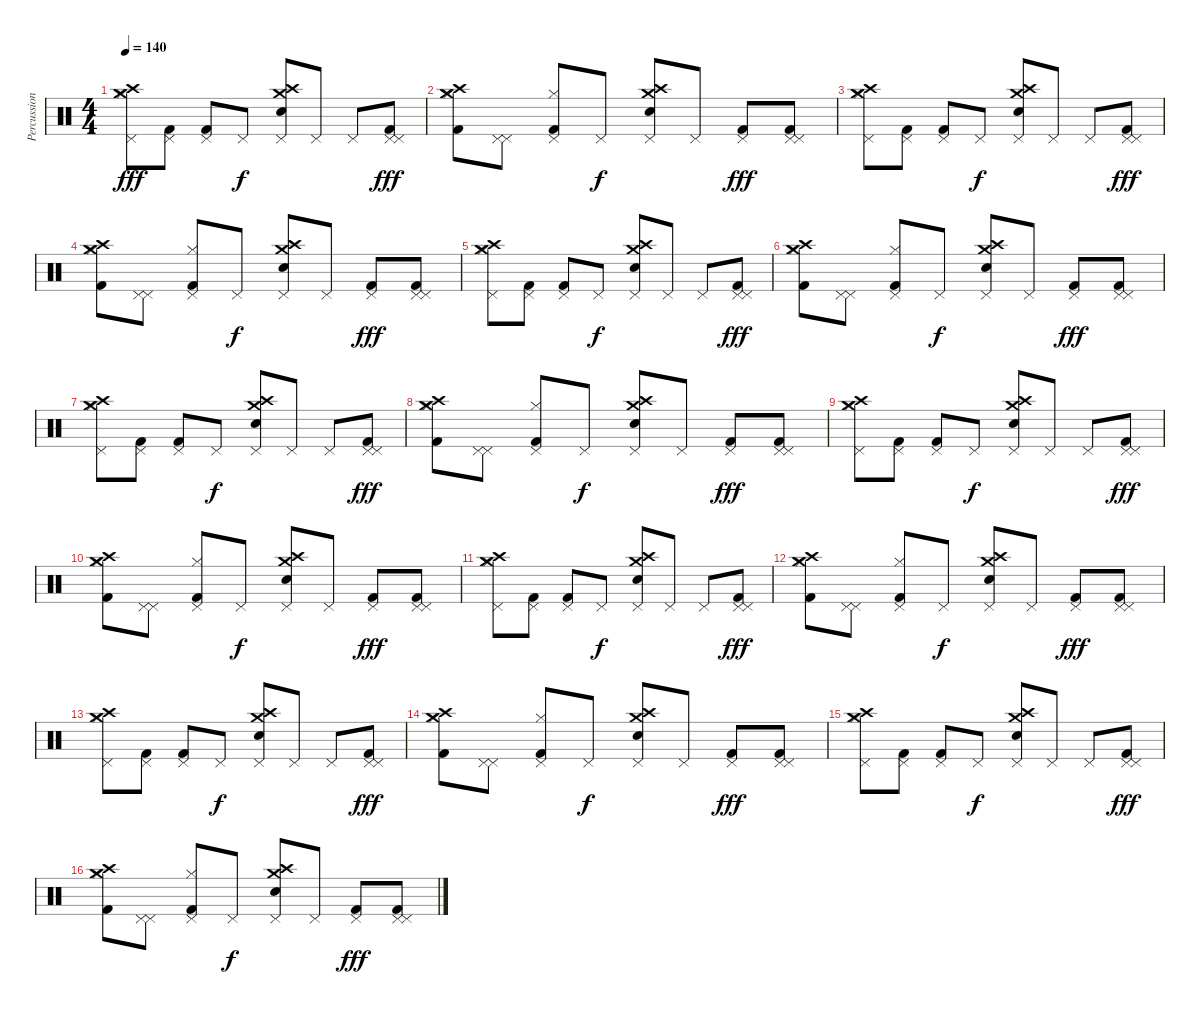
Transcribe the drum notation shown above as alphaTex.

\track ("Percussion" "Percussion") {instrument percussion}
\staff {score}
\articulation defaults
\ts (4 4)
\tempo 140
\clef neutral
\ks c
("Pedal Hi-Hat (hit)" "Crash high (hit)" "Hi-Hat (closed)" "Crash medium (hit)").8{dy fff} ("Pedal Hi-Hat (hit)" "Kick (hit) 2").8 ("Pedal Hi-Hat (hit)" "Kick (hit) 2").8 "Pedal Hi-Hat (hit)".8{dy f} ("Pedal Hi-Hat (hit)" "Crash high (hit)" "Crash medium (hit)" "Electric Snare (hit)").8 "Pedal Hi-Hat (hit)".8 "Pedal Hi-Hat (hit)".8 ("Pedal Hi-Hat (hit)" "Pedal Hi-Hat (hit)" "Kick (hit) 2").8{dy fff} |
("Hi-Hat (closed)" "Crash medium (hit)" "Crash high (hit)" "Kick (hit) 2").8 ("Pedal Hi-Hat (hit)" "Pedal Hi-Hat (hit)").8 ("Pedal Hi-Hat (hit)" "Hi-Hat (closed)" "Kick (hit) 2").8 "Pedal Hi-Hat (hit)".8{dy f} ("Pedal Hi-Hat (hit)" "Crash medium (hit)" "Crash high (hit)" "Electric Snare (hit)").8 "Pedal Hi-Hat (hit)".8 ("Pedal Hi-Hat (hit)" "Kick (hit) 2").8{dy fff} ("Pedal Hi-Hat (hit)" "Pedal Hi-Hat (hit)" "Kick (hit) 2").8 |
("Pedal Hi-Hat (hit)" "Crash high (hit)" "Hi-Hat (closed)" "Crash medium (hit)").8 ("Pedal Hi-Hat (hit)" "Kick (hit) 2").8 ("Pedal Hi-Hat (hit)" "Kick (hit) 2").8 "Pedal Hi-Hat (hit)".8{dy f} ("Pedal Hi-Hat (hit)" "Crash high (hit)" "Crash medium (hit)" "Electric Snare (hit)").8 "Pedal Hi-Hat (hit)".8 "Pedal Hi-Hat (hit)".8 ("Pedal Hi-Hat (hit)" "Pedal Hi-Hat (hit)" "Kick (hit) 2").8{dy fff} |
("Hi-Hat (closed)" "Crash medium (hit)" "Crash high (hit)" "Kick (hit) 2").8 ("Pedal Hi-Hat (hit)" "Pedal Hi-Hat (hit)").8 ("Pedal Hi-Hat (hit)" "Hi-Hat (closed)" "Kick (hit) 2").8 "Pedal Hi-Hat (hit)".8{dy f} ("Pedal Hi-Hat (hit)" "Crash medium (hit)" "Crash high (hit)" "Electric Snare (hit)").8 "Pedal Hi-Hat (hit)".8 ("Pedal Hi-Hat (hit)" "Kick (hit) 2").8{dy fff} ("Pedal Hi-Hat (hit)" "Pedal Hi-Hat (hit)" "Kick (hit) 2").8 |
("Pedal Hi-Hat (hit)" "Crash high (hit)" "Hi-Hat (closed)" "Crash medium (hit)").8 ("Pedal Hi-Hat (hit)" "Kick (hit) 2").8 ("Pedal Hi-Hat (hit)" "Kick (hit) 2").8 "Pedal Hi-Hat (hit)".8{dy f} ("Pedal Hi-Hat (hit)" "Crash high (hit)" "Crash medium (hit)" "Electric Snare (hit)").8 "Pedal Hi-Hat (hit)".8 "Pedal Hi-Hat (hit)".8 ("Pedal Hi-Hat (hit)" "Pedal Hi-Hat (hit)" "Kick (hit) 2").8{dy fff} |
("Hi-Hat (closed)" "Crash medium (hit)" "Crash high (hit)" "Kick (hit) 2").8 ("Pedal Hi-Hat (hit)" "Pedal Hi-Hat (hit)").8 ("Pedal Hi-Hat (hit)" "Hi-Hat (closed)" "Kick (hit) 2").8 "Pedal Hi-Hat (hit)".8{dy f} ("Pedal Hi-Hat (hit)" "Crash medium (hit)" "Crash high (hit)" "Electric Snare (hit)").8 "Pedal Hi-Hat (hit)".8 ("Pedal Hi-Hat (hit)" "Kick (hit) 2").8{dy fff} ("Pedal Hi-Hat (hit)" "Pedal Hi-Hat (hit)" "Kick (hit) 2").8 |
("Pedal Hi-Hat (hit)" "Crash high (hit)" "Hi-Hat (closed)" "Crash medium (hit)").8 ("Pedal Hi-Hat (hit)" "Kick (hit) 2").8 ("Pedal Hi-Hat (hit)" "Kick (hit) 2").8 "Pedal Hi-Hat (hit)".8{dy f} ("Pedal Hi-Hat (hit)" "Crash high (hit)" "Crash medium (hit)" "Electric Snare (hit)").8 "Pedal Hi-Hat (hit)".8 "Pedal Hi-Hat (hit)".8 ("Pedal Hi-Hat (hit)" "Pedal Hi-Hat (hit)" "Kick (hit) 2").8{dy fff} |
("Hi-Hat (closed)" "Crash medium (hit)" "Crash high (hit)" "Kick (hit) 2").8 ("Pedal Hi-Hat (hit)" "Pedal Hi-Hat (hit)").8 ("Pedal Hi-Hat (hit)" "Hi-Hat (closed)" "Kick (hit) 2").8 "Pedal Hi-Hat (hit)".8{dy f} ("Pedal Hi-Hat (hit)" "Crash medium (hit)" "Crash high (hit)" "Electric Snare (hit)").8 "Pedal Hi-Hat (hit)".8 ("Pedal Hi-Hat (hit)" "Kick (hit) 2").8{dy fff} ("Pedal Hi-Hat (hit)" "Pedal Hi-Hat (hit)" "Kick (hit) 2").8 |
("Pedal Hi-Hat (hit)" "Crash high (hit)" "Hi-Hat (closed)" "Crash medium (hit)").8 ("Pedal Hi-Hat (hit)" "Kick (hit) 2").8 ("Pedal Hi-Hat (hit)" "Kick (hit) 2").8 "Pedal Hi-Hat (hit)".8{dy f} ("Pedal Hi-Hat (hit)" "Crash high (hit)" "Crash medium (hit)" "Electric Snare (hit)").8 "Pedal Hi-Hat (hit)".8 "Pedal Hi-Hat (hit)".8 ("Pedal Hi-Hat (hit)" "Pedal Hi-Hat (hit)" "Kick (hit) 2").8{dy fff} |
("Hi-Hat (closed)" "Crash medium (hit)" "Crash high (hit)" "Kick (hit) 2").8 ("Pedal Hi-Hat (hit)" "Pedal Hi-Hat (hit)").8 ("Pedal Hi-Hat (hit)" "Hi-Hat (closed)" "Kick (hit) 2").8 "Pedal Hi-Hat (hit)".8{dy f} ("Pedal Hi-Hat (hit)" "Crash medium (hit)" "Crash high (hit)" "Electric Snare (hit)").8 "Pedal Hi-Hat (hit)".8 ("Pedal Hi-Hat (hit)" "Kick (hit) 2").8{dy fff} ("Pedal Hi-Hat (hit)" "Pedal Hi-Hat (hit)" "Kick (hit) 2").8 |
("Pedal Hi-Hat (hit)" "Crash high (hit)" "Hi-Hat (closed)" "Crash medium (hit)").8 ("Pedal Hi-Hat (hit)" "Kick (hit) 2").8 ("Pedal Hi-Hat (hit)" "Kick (hit) 2").8 "Pedal Hi-Hat (hit)".8{dy f} ("Pedal Hi-Hat (hit)" "Crash high (hit)" "Crash medium (hit)" "Electric Snare (hit)").8 "Pedal Hi-Hat (hit)".8 "Pedal Hi-Hat (hit)".8 ("Pedal Hi-Hat (hit)" "Pedal Hi-Hat (hit)" "Kick (hit) 2").8{dy fff} |
("Hi-Hat (closed)" "Crash medium (hit)" "Crash high (hit)" "Kick (hit) 2").8 ("Pedal Hi-Hat (hit)" "Pedal Hi-Hat (hit)").8 ("Pedal Hi-Hat (hit)" "Hi-Hat (closed)" "Kick (hit) 2").8 "Pedal Hi-Hat (hit)".8{dy f} ("Pedal Hi-Hat (hit)" "Crash medium (hit)" "Crash high (hit)" "Electric Snare (hit)").8 "Pedal Hi-Hat (hit)".8 ("Pedal Hi-Hat (hit)" "Kick (hit) 2").8{dy fff} ("Pedal Hi-Hat (hit)" "Pedal Hi-Hat (hit)" "Kick (hit) 2").8 |
("Pedal Hi-Hat (hit)" "Crash high (hit)" "Hi-Hat (closed)" "Crash medium (hit)").8 ("Pedal Hi-Hat (hit)" "Kick (hit) 2").8 ("Pedal Hi-Hat (hit)" "Kick (hit) 2").8 "Pedal Hi-Hat (hit)".8{dy f} ("Pedal Hi-Hat (hit)" "Crash high (hit)" "Crash medium (hit)" "Electric Snare (hit)").8 "Pedal Hi-Hat (hit)".8 "Pedal Hi-Hat (hit)".8 ("Pedal Hi-Hat (hit)" "Pedal Hi-Hat (hit)" "Kick (hit) 2").8{dy fff} |
("Hi-Hat (closed)" "Crash medium (hit)" "Crash high (hit)" "Kick (hit) 2").8 ("Pedal Hi-Hat (hit)" "Pedal Hi-Hat (hit)").8 ("Pedal Hi-Hat (hit)" "Hi-Hat (closed)" "Kick (hit) 2").8 "Pedal Hi-Hat (hit)".8{dy f} ("Pedal Hi-Hat (hit)" "Crash medium (hit)" "Crash high (hit)" "Electric Snare (hit)").8 "Pedal Hi-Hat (hit)".8 ("Pedal Hi-Hat (hit)" "Kick (hit) 2").8{dy fff} ("Pedal Hi-Hat (hit)" "Pedal Hi-Hat (hit)" "Kick (hit) 2").8 |
("Pedal Hi-Hat (hit)" "Crash high (hit)" "Hi-Hat (closed)" "Crash medium (hit)").8 ("Pedal Hi-Hat (hit)" "Kick (hit) 2").8 ("Pedal Hi-Hat (hit)" "Kick (hit) 2").8 "Pedal Hi-Hat (hit)".8{dy f} ("Pedal Hi-Hat (hit)" "Crash high (hit)" "Crash medium (hit)" "Electric Snare (hit)").8 "Pedal Hi-Hat (hit)".8 "Pedal Hi-Hat (hit)".8 ("Pedal Hi-Hat (hit)" "Pedal Hi-Hat (hit)" "Kick (hit) 2").8{dy fff} |
("Hi-Hat (closed)" "Crash medium (hit)" "Crash high (hit)" "Kick (hit) 2").8 ("Pedal Hi-Hat (hit)" "Pedal Hi-Hat (hit)").8 ("Pedal Hi-Hat (hit)" "Hi-Hat (closed)" "Kick (hit) 2").8 "Pedal Hi-Hat (hit)".8{dy f} ("Pedal Hi-Hat (hit)" "Crash medium (hit)" "Crash high (hit)" "Electric Snare (hit)").8 "Pedal Hi-Hat (hit)".8 ("Pedal Hi-Hat (hit)" "Kick (hit) 2").8{dy fff} ("Pedal Hi-Hat (hit)" "Pedal Hi-Hat (hit)" "Kick (hit) 2").8
